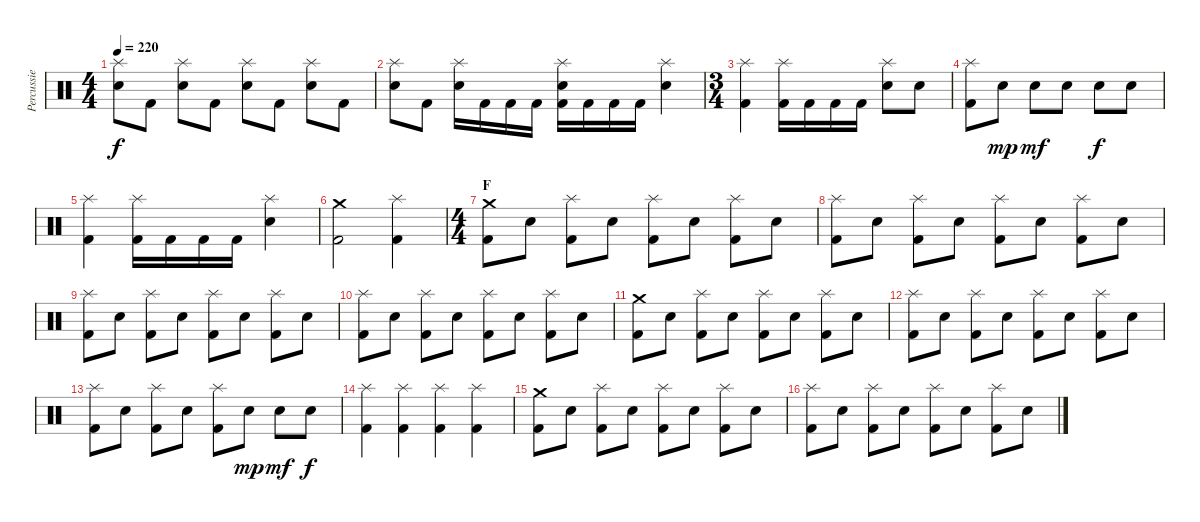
\track ("Percussie" "Percussie") {instrument percussion}
\staff {score}
\articulation defaults
\ts (4 4)
\tempo 220
\clef neutral
\ks c
("Splash (hit)" "Electric Snare (hit)").8{dy f} "Kick (hit) 2".8 ("Splash (hit)" "Electric Snare (hit)").8 "Kick (hit) 2".8 ("Splash (hit)" "Electric Snare (hit)").8 "Kick (hit) 2".8 ("Splash (hit)" "Electric Snare (hit)").8 "Kick (hit) 2".8 |
("Splash (hit)" "Electric Snare (hit)").8 "Kick (hit) 2".8 ("Splash (hit)" "Electric Snare (hit)").16 "Kick (hit) 2".16 "Kick (hit) 2".16 "Kick (hit) 2".16 ("Splash (hit)" "Electric Snare (hit)" "Kick (hit) 2").16 "Kick (hit) 2".16 "Kick (hit) 2".16 "Kick (hit) 2".16 ("Splash (hit)" "Electric Snare (hit)").4 |
\ts (3 4)
("Splash (hit)" "Kick (hit) 2").4 ("Splash (hit)" "Kick (hit) 2").16 "Kick (hit) 2".16 "Kick (hit) 2".16 "Kick (hit) 2".16 ("Splash (hit)" "Electric Snare (hit)").8 "Electric Snare (hit)".8 |
("Splash (hit)" "Kick (hit) 2").8 "Electric Snare (hit)".8{dy mp} "Electric Snare (hit)".8{dy mf} "Electric Snare (hit)".8 "Electric Snare (hit)".8{dy f} "Electric Snare (hit)".8 |
("Splash (hit)" "Kick (hit) 2").4 ("Splash (hit)" "Kick (hit) 2").16 "Kick (hit) 2".16 "Kick (hit) 2".16 "Kick (hit) 2".16 ("Splash (hit)" "Electric Snare (hit)").4 |
("Crash medium (hit)" "Kick (hit) 2").2 ("Splash (hit)" "Kick (hit) 2").4 |
\ts (4 4)
\section ("" "F")
("Crash medium (hit)" "Kick (hit) 2").8 "Electric Snare (hit)".8 ("Splash (hit)" "Kick (hit) 2").8 "Electric Snare (hit)".8 ("Splash (hit)" "Kick (hit) 2").8 "Electric Snare (hit)".8 ("Splash (hit)" "Kick (hit) 2").8 "Electric Snare (hit)".8 |
("Splash (hit)" "Kick (hit) 2").8 "Electric Snare (hit)".8 ("Splash (hit)" "Kick (hit) 2").8 "Electric Snare (hit)".8 ("Splash (hit)" "Kick (hit) 2").8 "Electric Snare (hit)".8 ("Splash (hit)" "Kick (hit) 2").8 "Electric Snare (hit)".8 |
("Splash (hit)" "Kick (hit) 2").8 "Electric Snare (hit)".8 ("Splash (hit)" "Kick (hit) 2").8 "Electric Snare (hit)".8 ("Splash (hit)" "Kick (hit) 2").8 "Electric Snare (hit)".8 ("Splash (hit)" "Kick (hit) 2").8 "Electric Snare (hit)".8 |
("Splash (hit)" "Kick (hit) 2").8 "Electric Snare (hit)".8 ("Splash (hit)" "Kick (hit) 2").8 "Electric Snare (hit)".8 ("Splash (hit)" "Kick (hit) 2").8 "Electric Snare (hit)".8 ("Splash (hit)" "Kick (hit) 2").8 "Electric Snare (hit)".8 |
("Crash medium (hit)" "Kick (hit) 2").8 "Electric Snare (hit)".8 ("Splash (hit)" "Kick (hit) 2").8 "Electric Snare (hit)".8 ("Splash (hit)" "Kick (hit) 2").8 "Electric Snare (hit)".8 ("Splash (hit)" "Kick (hit) 2").8 "Electric Snare (hit)".8 |
("Splash (hit)" "Kick (hit) 2").8 "Electric Snare (hit)".8 ("Splash (hit)" "Kick (hit) 2").8 "Electric Snare (hit)".8 ("Splash (hit)" "Kick (hit) 2").8 "Electric Snare (hit)".8 ("Splash (hit)" "Kick (hit) 2").8 "Electric Snare (hit)".8 |
("Splash (hit)" "Kick (hit) 2").8 "Electric Snare (hit)".8 ("Splash (hit)" "Kick (hit) 2").8 "Electric Snare (hit)".8 ("Splash (hit)" "Kick (hit) 2").8 "Electric Snare (hit)".8{dy mp} "Electric Snare (hit)".8{dy mf} "Electric Snare (hit)".8{dy f} |
("Splash (hit)" "Kick (hit) 2").4 ("Splash (hit)" "Kick (hit) 2").4 ("Splash (hit)" "Kick (hit) 2").4 ("Splash (hit)" "Kick (hit) 2").4 |
("Crash medium (hit)" "Kick (hit) 2").8 "Electric Snare (hit)".8 ("Splash (hit)" "Kick (hit) 2").8 "Electric Snare (hit)".8 ("Splash (hit)" "Kick (hit) 2").8 "Electric Snare (hit)".8 ("Splash (hit)" "Kick (hit) 2").8 "Electric Snare (hit)".8 |
("Splash (hit)" "Kick (hit) 2").8 "Electric Snare (hit)".8 ("Splash (hit)" "Kick (hit) 2").8 "Electric Snare (hit)".8 ("Splash (hit)" "Kick (hit) 2").8 "Electric Snare (hit)".8 ("Splash (hit)" "Kick (hit) 2").8 "Electric Snare (hit)".8
